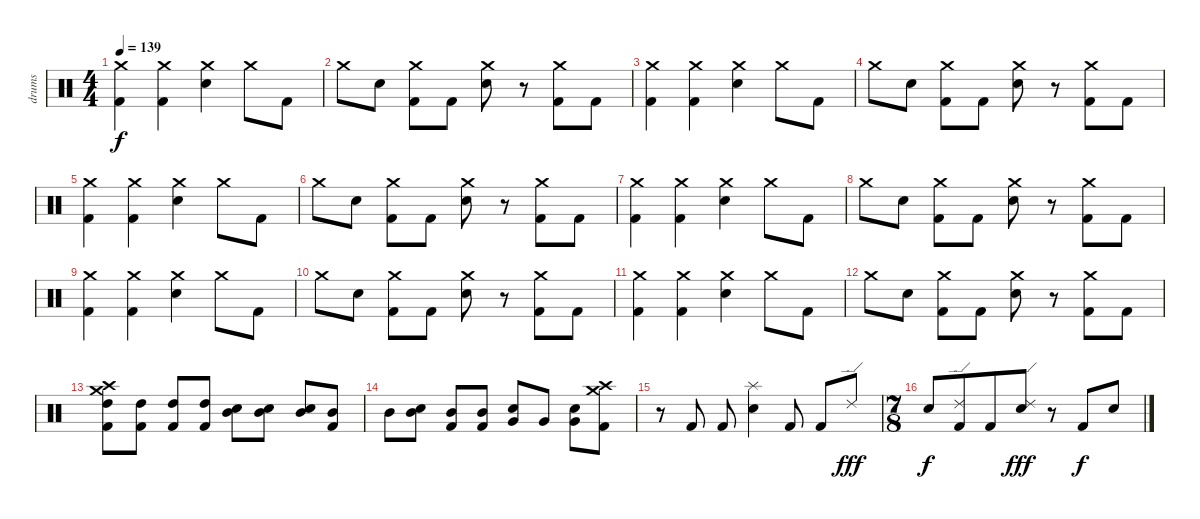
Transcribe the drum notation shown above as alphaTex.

\track ("drums" "drums") {instrument percussion}
\staff {score}
\articulation defaults
\ts (4 4)
\tempo 139
\clef neutral
\ks c
("Crash medium (hit)" "Kick (hit) 2").4{dy f} ("Crash medium (hit)" "Kick (hit) 2").4 ("Crash medium (hit)" "Electric Snare (hit)").4 "Crash medium (hit)".8 "Kick (hit) 2".8 |
"Crash medium (hit)".8 "Electric Snare (hit)".8 ("Crash medium (hit)" "Kick (hit) 2").8 "Kick (hit) 2".8 ("Crash medium (hit)" "Electric Snare (hit)").8 r.8 ("Crash medium (hit)" "Kick (hit) 2").8 "Kick (hit) 2".8 |
("Crash medium (hit)" "Kick (hit) 2").4 ("Crash medium (hit)" "Kick (hit) 2").4 ("Crash medium (hit)" "Electric Snare (hit)").4 "Crash medium (hit)".8 "Kick (hit) 2".8 |
"Crash medium (hit)".8 "Electric Snare (hit)".8 ("Crash medium (hit)" "Kick (hit) 2").8 "Kick (hit) 2".8 ("Crash medium (hit)" "Electric Snare (hit)").8 r.8 ("Crash medium (hit)" "Kick (hit) 2").8 "Kick (hit) 2".8 |
("Crash medium (hit)" "Kick (hit) 2").4 ("Crash medium (hit)" "Kick (hit) 2").4 ("Crash medium (hit)" "Electric Snare (hit)").4 "Crash medium (hit)".8 "Kick (hit) 2".8 |
"Crash medium (hit)".8 "Electric Snare (hit)".8 ("Crash medium (hit)" "Kick (hit) 2").8 "Kick (hit) 2".8 ("Crash medium (hit)" "Electric Snare (hit)").8 r.8 ("Crash medium (hit)" "Kick (hit) 2").8 "Kick (hit) 2".8 |
("Crash medium (hit)" "Kick (hit) 2").4 ("Crash medium (hit)" "Kick (hit) 2").4 ("Crash medium (hit)" "Electric Snare (hit)").4 "Crash medium (hit)".8 "Kick (hit) 2".8 |
"Crash medium (hit)".8 "Electric Snare (hit)".8 ("Crash medium (hit)" "Kick (hit) 2").8 "Kick (hit) 2".8 ("Crash medium (hit)" "Electric Snare (hit)").8 r.8 ("Crash medium (hit)" "Kick (hit) 2").8 "Kick (hit) 2".8 |
("Crash medium (hit)" "Kick (hit) 2").4 ("Crash medium (hit)" "Kick (hit) 2").4 ("Crash medium (hit)" "Electric Snare (hit)").4 "Crash medium (hit)".8 "Kick (hit) 2".8 |
"Crash medium (hit)".8 "Electric Snare (hit)".8 ("Crash medium (hit)" "Kick (hit) 2").8 "Kick (hit) 2".8 ("Crash medium (hit)" "Electric Snare (hit)").8 r.8 ("Crash medium (hit)" "Kick (hit) 2").8 "Kick (hit) 2".8 |
("Crash medium (hit)" "Kick (hit) 2").4 ("Crash medium (hit)" "Kick (hit) 2").4 ("Crash medium (hit)" "Electric Snare (hit)").4 "Crash medium (hit)".8 "Kick (hit) 2".8 |
"Crash medium (hit)".8 "Electric Snare (hit)".8 ("Crash medium (hit)" "Kick (hit) 2").8 "Kick (hit) 2".8 ("Crash medium (hit)" "Electric Snare (hit)").8 r.8 ("Crash medium (hit)" "Kick (hit) 2").8 "Kick (hit) 2".8 |
("Crash medium (hit)" "Crash high (hit)" "High Tom (hit)" "Kick (hit) 2").8 ("High Tom (hit)" "Kick (hit) 2").8 ("High Tom (hit)" "Kick (hit) 2").8 ("High Tom (hit)" "Kick (hit) 2").8 ("Mid Tom (hit)" "Electric Snare (hit)").8 ("Mid Tom (hit)" "Electric Snare (hit)").8 ("Mid Tom (hit)" "Electric Snare (hit)").8 ("Mid Tom (hit)" "Kick (hit) 2").8 |
"Mid Tom (hit)".8 ("Mid Tom (hit)" "Electric Snare (hit)").8 ("Mid Tom (hit)" "Kick (hit) 2").8 ("Mid Tom (hit)" "Kick (hit) 2").8 ("Very Low Tom (hit)" "Electric Snare (hit)").8 "Very Low Tom (hit)".8 ("Very Low Tom (hit)" "Electric Snare (hit)").8 ("Crash medium (hit)" "Crash high (hit)" "Kick (hit) 2").8 |
r.8 "Kick (hit) 2".8 "Kick (hit) 2".8 ("Splash (hit)" "Electric Snare (hit)").4 "Kick (hit) 2".8 "Kick (hit) 2".8 "Ride (edge) 2".8{dy fff} |
\ts (7 8)
"Electric Snare (hit)".8{dy f} ("Ride (edge) 2" "Kick (hit) 2").8 "Kick (hit) 2".8 ("Ride (edge) 2" "Electric Snare (hit)").8{dy fff} r.8 "Kick (hit) 2".8{dy f} "Electric Snare (hit)".8
